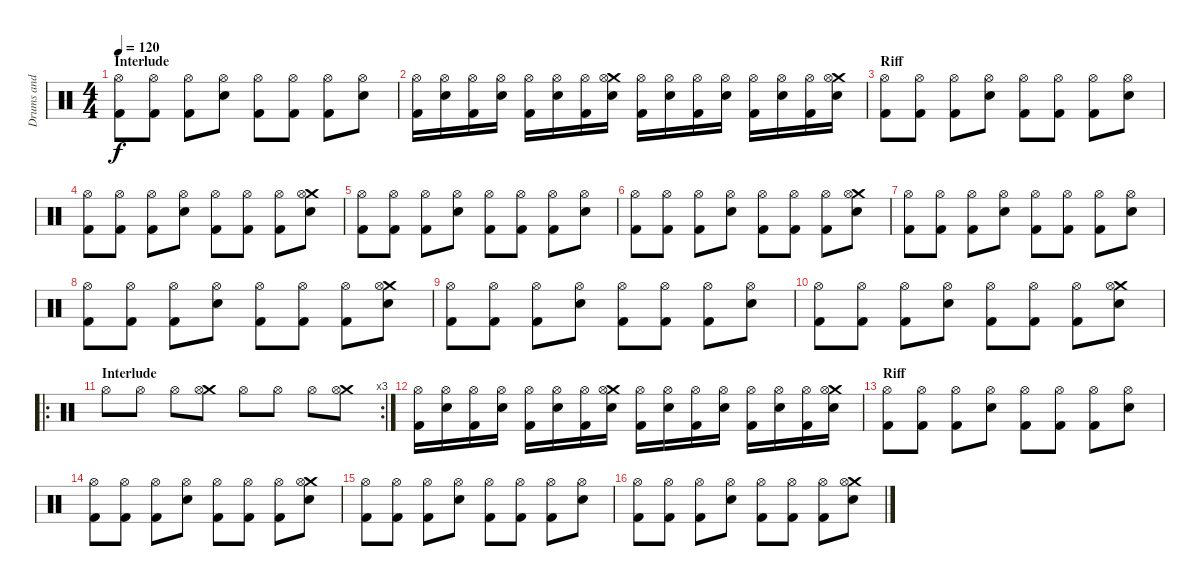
\track ("Drums and Percussion" "Drums and ") {instrument percussion}
\staff {score}
\articulation defaults
\ts (4 4)
\section ("" "Interlude")
\tempo 120
\clef neutral
\ks c
("Hi-Hat (open)" "Kick (hit) 2").8{dy f} ("Hi-Hat (open)" "Kick (hit) 2").8 ("Hi-Hat (open)" "Kick (hit) 2").8 ("Hi-Hat (open)" "Electric Snare (hit)").8 ("Hi-Hat (open)" "Kick (hit) 2").8 ("Hi-Hat (open)" "Kick (hit) 2").8 ("Hi-Hat (open)" "Kick (hit) 2").8 ("Hi-Hat (open)" "Electric Snare (hit)").8 |
("Hi-Hat (open)" "Kick (hit) 2").16 ("Hi-Hat (open)" "Electric Snare (hit)").16 ("Hi-Hat (open)" "Kick (hit) 2").16 ("Hi-Hat (open)" "Electric Snare (hit)").16 ("Hi-Hat (open)" "Kick (hit) 2").16 ("Hi-Hat (open)" "Electric Snare (hit)").16 ("Hi-Hat (open)" "Kick (hit) 2").16 ("Crash medium (hit)" "Hi-Hat (open)" "Electric Snare (hit)").16 ("Hi-Hat (open)" "Kick (hit) 2").16 ("Hi-Hat (open)" "Electric Snare (hit)").16 ("Hi-Hat (open)" "Kick (hit) 2").16 ("Hi-Hat (open)" "Electric Snare (hit)").16 ("Hi-Hat (open)" "Kick (hit) 2").16 ("Hi-Hat (open)" "Electric Snare (hit)").16 ("Hi-Hat (open)" "Kick (hit) 2").16 ("Crash medium (hit)" "Hi-Hat (open)" "Electric Snare (hit)").16 |
\section ("" "Riff")
("Hi-Hat (open)" "Kick (hit) 2").8 ("Hi-Hat (open)" "Kick (hit) 2").8 ("Hi-Hat (open)" "Kick (hit) 2").8 ("Hi-Hat (open)" "Electric Snare (hit)").8 ("Hi-Hat (open)" "Kick (hit) 2").8 ("Hi-Hat (open)" "Kick (hit) 2").8 ("Hi-Hat (open)" "Kick (hit) 2").8 ("Hi-Hat (open)" "Electric Snare (hit)").8 |
("Hi-Hat (open)" "Kick (hit) 2").8 ("Hi-Hat (open)" "Kick (hit) 2").8 ("Hi-Hat (open)" "Kick (hit) 2").8 ("Hi-Hat (open)" "Electric Snare (hit)").8 ("Hi-Hat (open)" "Kick (hit) 2").8 ("Hi-Hat (open)" "Kick (hit) 2").8 ("Hi-Hat (open)" "Kick (hit) 2").8 ("Crash medium (hit)" "Hi-Hat (open)" "Electric Snare (hit)").8 |
("Hi-Hat (open)" "Kick (hit) 2").8 ("Hi-Hat (open)" "Kick (hit) 2").8 ("Hi-Hat (open)" "Kick (hit) 2").8 ("Hi-Hat (open)" "Electric Snare (hit)").8 ("Hi-Hat (open)" "Kick (hit) 2").8 ("Hi-Hat (open)" "Kick (hit) 2").8 ("Hi-Hat (open)" "Kick (hit) 2").8 ("Hi-Hat (open)" "Electric Snare (hit)").8 |
("Hi-Hat (open)" "Kick (hit) 2").8 ("Hi-Hat (open)" "Kick (hit) 2").8 ("Hi-Hat (open)" "Kick (hit) 2").8 ("Hi-Hat (open)" "Electric Snare (hit)").8 ("Hi-Hat (open)" "Kick (hit) 2").8 ("Hi-Hat (open)" "Kick (hit) 2").8 ("Hi-Hat (open)" "Kick (hit) 2").8 ("Crash medium (hit)" "Hi-Hat (open)" "Electric Snare (hit)").8 |
("Hi-Hat (open)" "Kick (hit) 2").8 ("Hi-Hat (open)" "Kick (hit) 2").8 ("Hi-Hat (open)" "Kick (hit) 2").8 ("Hi-Hat (open)" "Electric Snare (hit)").8 ("Hi-Hat (open)" "Kick (hit) 2").8 ("Hi-Hat (open)" "Kick (hit) 2").8 ("Hi-Hat (open)" "Kick (hit) 2").8 ("Hi-Hat (open)" "Electric Snare (hit)").8 |
("Hi-Hat (open)" "Kick (hit) 2").8 ("Hi-Hat (open)" "Kick (hit) 2").8 ("Hi-Hat (open)" "Kick (hit) 2").8 ("Hi-Hat (open)" "Electric Snare (hit)").8 ("Hi-Hat (open)" "Kick (hit) 2").8 ("Hi-Hat (open)" "Kick (hit) 2").8 ("Hi-Hat (open)" "Kick (hit) 2").8 ("Crash medium (hit)" "Hi-Hat (open)" "Electric Snare (hit)").8 |
("Hi-Hat (open)" "Kick (hit) 2").8 ("Hi-Hat (open)" "Kick (hit) 2").8 ("Hi-Hat (open)" "Kick (hit) 2").8 ("Hi-Hat (open)" "Electric Snare (hit)").8 ("Hi-Hat (open)" "Kick (hit) 2").8 ("Hi-Hat (open)" "Kick (hit) 2").8 ("Hi-Hat (open)" "Kick (hit) 2").8 ("Hi-Hat (open)" "Electric Snare (hit)").8 |
("Hi-Hat (open)" "Kick (hit) 2").8 ("Hi-Hat (open)" "Kick (hit) 2").8 ("Hi-Hat (open)" "Kick (hit) 2").8 ("Hi-Hat (open)" "Electric Snare (hit)").8 ("Hi-Hat (open)" "Kick (hit) 2").8 ("Hi-Hat (open)" "Kick (hit) 2").8 ("Hi-Hat (open)" "Kick (hit) 2").8 ("Crash medium (hit)" "Hi-Hat (open)" "Electric Snare (hit)").8 |
\ro
\rc 3
\section ("" "Interlude")
"Hi-Hat (open)".8 "Hi-Hat (open)".8 "Hi-Hat (open)".8 ("Crash medium (hit)" "Hi-Hat (open)").8 "Hi-Hat (open)".8 "Hi-Hat (open)".8 "Hi-Hat (open)".8 ("Crash medium (hit)" "Hi-Hat (open)").8 |
("Hi-Hat (open)" "Kick (hit) 2").16 ("Hi-Hat (open)" "Electric Snare (hit)").16 ("Hi-Hat (open)" "Kick (hit) 2").16 ("Hi-Hat (open)" "Electric Snare (hit)").16 ("Hi-Hat (open)" "Kick (hit) 2").16 ("Hi-Hat (open)" "Electric Snare (hit)").16 ("Hi-Hat (open)" "Kick (hit) 2").16 ("Crash medium (hit)" "Hi-Hat (open)" "Electric Snare (hit)").16 ("Hi-Hat (open)" "Kick (hit) 2").16 ("Hi-Hat (open)" "Electric Snare (hit)").16 ("Hi-Hat (open)" "Kick (hit) 2").16 ("Hi-Hat (open)" "Electric Snare (hit)").16 ("Hi-Hat (open)" "Kick (hit) 2").16 ("Hi-Hat (open)" "Electric Snare (hit)").16 ("Hi-Hat (open)" "Kick (hit) 2").16 ("Crash medium (hit)" "Hi-Hat (open)" "Electric Snare (hit)").16 |
\section ("" "Riff")
("Hi-Hat (open)" "Kick (hit) 2").8 ("Hi-Hat (open)" "Kick (hit) 2").8 ("Hi-Hat (open)" "Kick (hit) 2").8 ("Hi-Hat (open)" "Electric Snare (hit)").8 ("Hi-Hat (open)" "Kick (hit) 2").8 ("Hi-Hat (open)" "Kick (hit) 2").8 ("Hi-Hat (open)" "Kick (hit) 2").8 ("Hi-Hat (open)" "Electric Snare (hit)").8 |
("Hi-Hat (open)" "Kick (hit) 2").8 ("Hi-Hat (open)" "Kick (hit) 2").8 ("Hi-Hat (open)" "Kick (hit) 2").8 ("Hi-Hat (open)" "Electric Snare (hit)").8 ("Hi-Hat (open)" "Kick (hit) 2").8 ("Hi-Hat (open)" "Kick (hit) 2").8 ("Hi-Hat (open)" "Kick (hit) 2").8 ("Crash medium (hit)" "Hi-Hat (open)" "Electric Snare (hit)").8 |
("Hi-Hat (open)" "Kick (hit) 2").8 ("Hi-Hat (open)" "Kick (hit) 2").8 ("Hi-Hat (open)" "Kick (hit) 2").8 ("Hi-Hat (open)" "Electric Snare (hit)").8 ("Hi-Hat (open)" "Kick (hit) 2").8 ("Hi-Hat (open)" "Kick (hit) 2").8 ("Hi-Hat (open)" "Kick (hit) 2").8 ("Hi-Hat (open)" "Electric Snare (hit)").8 |
("Hi-Hat (open)" "Kick (hit) 2").8 ("Hi-Hat (open)" "Kick (hit) 2").8 ("Hi-Hat (open)" "Kick (hit) 2").8 ("Hi-Hat (open)" "Electric Snare (hit)").8 ("Hi-Hat (open)" "Kick (hit) 2").8 ("Hi-Hat (open)" "Kick (hit) 2").8 ("Hi-Hat (open)" "Kick (hit) 2").8 ("Crash medium (hit)" "Hi-Hat (open)" "Electric Snare (hit)").8
